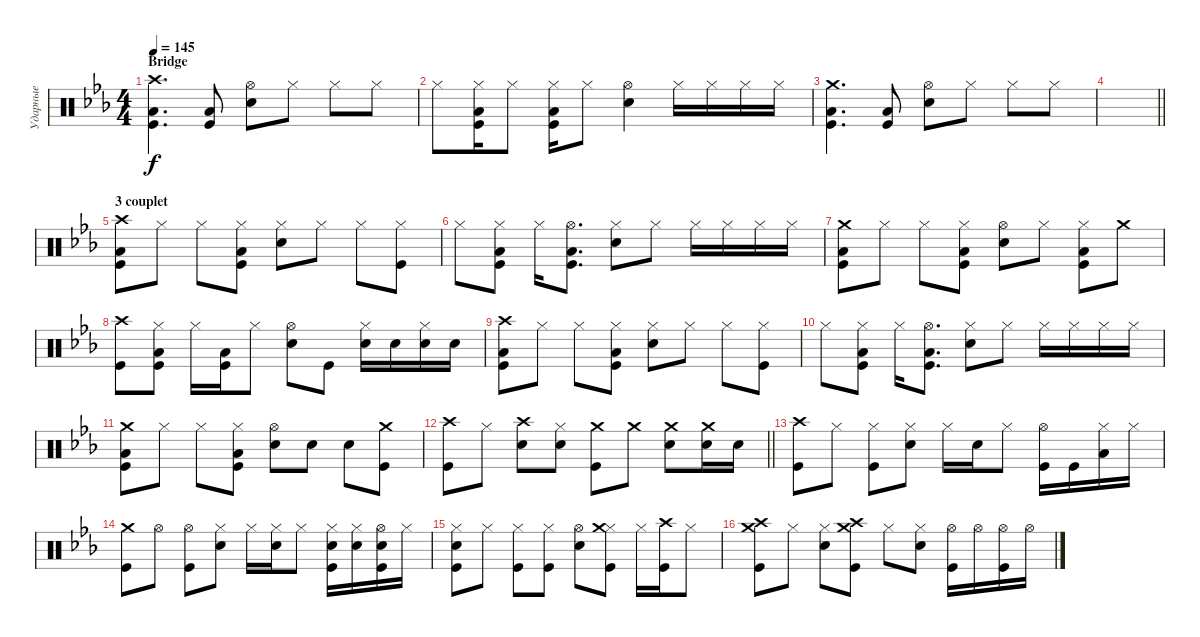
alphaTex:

\track ("Ударные" "Ударные") {instrument percussion}
\staff {score}
\articulation defaults
\ts (4 4)
\section ("" "Bridge")
\tempo 145
\clef neutral
\ks cminor
("Crash high (hit)" "Low Floor Tom (hit)" "Kick (hit)").4{d dy f} ("Low Floor Tom (hit)" "Kick (hit)").8 ("Hi-Hat (open)" "Snare (hit) 2").8 "Hi-Hat (closed)".8 "Hi-Hat (closed)".8 "Hi-Hat (closed)".8 |
"Hi-Hat (closed)".8 ("Hi-Hat (closed)" "Low Floor Tom (hit)" "Kick (hit)").16 "Hi-Hat (closed)".8 ("Hi-Hat (closed)" "Low Floor Tom (hit)" "Kick (hit)").16 "Hi-Hat (closed)".8 ("Hi-Hat (open)" "Snare (hit) 2").4 "Hi-Hat (closed)".16 "Hi-Hat (closed)".16 "Hi-Hat (closed)".16 "Hi-Hat (closed)".16 |
("Crash medium (hit)" "Low Floor Tom (hit)" "Kick (hit)").4{d} ("Low Floor Tom (hit)" "Kick (hit)").8 ("Hi-Hat (open)" "Snare (hit) 2").8 "Hi-Hat (closed)".8 "Hi-Hat (closed)".8 "Hi-Hat (closed)".8 |
\barLineRight lightlight
|
\section ("" "3 couplet")
("Crash high (hit)" "Low Floor Tom (hit)" "Kick (hit)").8 "Hi-Hat (closed)".8 "Hi-Hat (closed)".8 ("Hi-Hat (closed)" "Low Floor Tom (hit)" "Kick (hit)").8 ("Hi-Hat (closed)" "Snare (hit) 2").8 "Hi-Hat (closed)".8 "Hi-Hat (closed)".8 ("Hi-Hat (closed)" "Kick (hit)").8 |
"Hi-Hat (closed)".8 ("Hi-Hat (closed)" "Low Floor Tom (hit)" "Kick (hit)").8 "Hi-Hat (closed)".16 ("Hi-Hat (open)" "Low Floor Tom (hit)" "Kick (hit)").8{d} ("Hi-Hat (closed)" "Snare (hit) 2").8 "Hi-Hat (closed)".8 "Hi-Hat (closed)".16 "Hi-Hat (closed)".16 "Hi-Hat (closed)".16 "Hi-Hat (closed)".16 |
("Crash medium (hit)" "Low Floor Tom (hit)" "Kick (hit)").8 "Hi-Hat (closed)".8 "Hi-Hat (closed)".8 ("Hi-Hat (closed)" "Low Floor Tom (hit)" "Kick (hit)").8 ("Hi-Hat (open)" "Snare (hit) 2").8 "Hi-Hat (closed)".8 ("Hi-Hat (closed)" "Low Floor Tom (hit)" "Kick (hit)").8 "Crash medium (hit)".8 |
("Crash high (hit)" "Kick (hit)").8 ("Hi-Hat (closed)" "Low Floor Tom (hit)" "Kick (hit)").8 "Hi-Hat (closed)".16 ("Low Floor Tom (hit)" "Kick (hit)").16 "Hi-Hat (closed)".8 ("Hi-Hat (open)" "Snare (hit) 2").8 "Kick (hit)".8 ("Hi-Hat (closed)" "Snare (hit) 2").16 "Snare (hit) 2".16 ("Hi-Hat (closed)" "Snare (hit) 2").16 "Snare (hit) 2".16 |
("Crash high (hit)" "Low Floor Tom (hit)" "Kick (hit)").8 "Hi-Hat (closed)".8 "Hi-Hat (closed)".8 ("Hi-Hat (closed)" "Low Floor Tom (hit)" "Kick (hit)").8 ("Hi-Hat (closed)" "Snare (hit) 2").8 "Hi-Hat (closed)".8 "Hi-Hat (closed)".8 ("Hi-Hat (closed)" "Kick (hit)").8 |
"Hi-Hat (closed)".8 ("Hi-Hat (closed)" "Low Floor Tom (hit)" "Kick (hit)").8 "Hi-Hat (closed)".16 ("Hi-Hat (open)" "Low Floor Tom (hit)" "Kick (hit)").8{d} ("Hi-Hat (closed)" "Snare (hit) 2").8 "Hi-Hat (closed)".8 "Hi-Hat (closed)".16 "Hi-Hat (closed)".16 "Hi-Hat (closed)".16 "Hi-Hat (closed)".16 |
("Crash medium (hit)" "Low Floor Tom (hit)" "Kick (hit)").8 "Hi-Hat (closed)".8 "Hi-Hat (closed)".8 ("Hi-Hat (closed)" "Low Floor Tom (hit)" "Kick (hit)").8 ("Hi-Hat (open)" "Snare (hit) 2").8 "Snare (hit) 2".8 "Snare (hit) 2".8 ("Crash medium (hit)" "Kick (hit)").8 |
\barLineRight lightlight
("Crash high (hit)" "Kick (hit)").8 "Hi-Hat (closed)".8 ("Crash high (hit)" "Snare (hit) 2").8 ("Hi-Hat (closed)" "Snare (hit) 2").8 ("Crash medium (hit)" "Kick (hit)").8 "Crash medium (hit)".8 ("Crash medium (hit)" "Snare (hit) 2").8 ("Crash medium (hit)" "Snare (hit) 2").16 "Snare (hit) 2".16 |
("Crash high (hit)" "Kick (hit)").8 "Hi-Hat (closed)".8 ("Hi-Hat (closed)" "Kick (hit)").8 ("Hi-Hat (closed)" "Snare (hit) 2").8 "Hi-Hat (closed)".16 "Snare (hit) 2".16 "Hi-Hat (closed)".8 ("Hi-Hat (open)" "Kick (hit)").16 "Kick (hit)".16 ("Hi-Hat (closed)" "Low Floor Tom (hit)").16 "Hi-Hat (closed)".16 |
("Crash medium (hit)" "Kick (hit)").8 "Hi-Hat (open)".8 ("Hi-Hat (open)" "Kick (hit)").8 ("Hi-Hat (closed)" "Snare (hit) 2").8 "Hi-Hat (closed)".16 ("Hi-Hat (closed)" "Snare (hit) 2").16 "Hi-Hat (closed)".8 ("Hi-Hat (closed)" "Snare (hit) 2" "Kick (hit)").16 ("Hi-Hat (closed)" "Snare (hit) 2").16 ("Hi-Hat (open)" "Snare (hit) 2" "Kick (hit)").16 "Hi-Hat (closed)".16 |
("Hi-Hat (closed)" "Snare (hit) 2" "Kick (hit)").8 "Hi-Hat (closed)".8 ("Hi-Hat (closed)" "Kick (hit)").8 ("Hi-Hat (closed)" "Kick (hit)").8 ("Hi-Hat (open)" "Snare (hit) 2").8 ("Hi-Hat (closed)" "Crash medium (hit)" "Kick (hit)").8 "Hi-Hat (closed)".16 ("Crash high (hit)" "Kick (hit)").16 "Hi-Hat (closed)".8 |
("Crash medium (hit)" "Crash high (hit)" "Kick (hit)").8 "Hi-Hat (closed)".8 ("Hi-Hat (closed)" "Snare (hit) 2").8 ("Crash medium (hit)" "Crash high (hit)" "Kick (hit)").8 "Hi-Hat (closed)".8 ("Hi-Hat (closed)" "Snare (hit) 2").8 ("Hi-Hat (open)" "Kick (hit)").16 "Hi-Hat (open)".16 ("Hi-Hat (open)" "Kick (hit)").16 "Hi-Hat (open)".16
